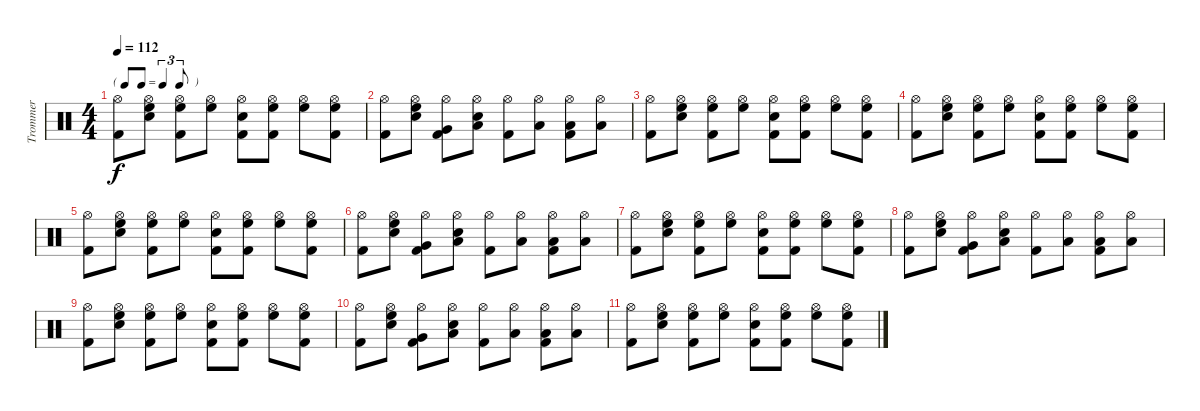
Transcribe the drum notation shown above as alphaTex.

\track ("Trommer" "Trommer") {instrument percussion}
\staff {score}
\articulation defaults
\ts (4 4)
\tf triplet8th
\tempo 112
\clef neutral
\ks c
("Hi-Hat (open)" "Kick (hit) 2").8{dy f} ("Hi-Hat (open)" "Snare (hit) 2" "High Floor Tom (hit)").8 ("Hi-Hat (open)" "High Floor Tom (hit)" "Kick (hit) 2").8 ("Hi-Hat (open)" "High Floor Tom (hit)").8 ("Hi-Hat (open)" "Snare (hit) 2" "Kick (hit) 2").8 ("Hi-Hat (open)" "High Floor Tom (hit)" "Kick (hit) 2").8 ("Hi-Hat (open)" "High Floor Tom (hit)").8 ("Hi-Hat (open)" "High Floor Tom (hit)" "Kick (hit) 2").8 |
("Hi-Hat (open)" "Kick (hit) 2").8 ("Hi-Hat (open)" "High Floor Tom (hit)" "Snare (hit) 2").8 ("Hi-Hat (open)" "Very Low Tom (hit)" "Kick (hit) 2").8 ("Hi-Hat (open)" "Snare (hit) 2" "Low Tom (hit)").8 ("Hi-Hat (open)" "Kick (hit) 2").8 ("Hi-Hat (open)" "Low Floor Tom (hit)").8 ("Hi-Hat (open)" "Low Floor Tom (hit)" "Kick (hit) 2").8 ("Hi-Hat (open)" "Low Floor Tom (hit)").8 |
("Hi-Hat (open)" "Kick (hit) 2").8 ("Hi-Hat (open)" "Snare (hit) 2" "High Floor Tom (hit)").8 ("Hi-Hat (open)" "High Floor Tom (hit)" "Kick (hit) 2").8 ("Hi-Hat (open)" "High Floor Tom (hit)").8 ("Hi-Hat (open)" "Snare (hit) 2" "Kick (hit) 2").8 ("Hi-Hat (open)" "High Floor Tom (hit)" "Kick (hit) 2").8 ("Hi-Hat (open)" "High Floor Tom (hit)").8 ("Hi-Hat (open)" "High Floor Tom (hit)" "Kick (hit) 2").8 |
("Hi-Hat (open)" "Kick (hit) 2").8 ("Hi-Hat (open)" "Snare (hit) 2" "High Floor Tom (hit)").8 ("Hi-Hat (open)" "High Floor Tom (hit)" "Kick (hit) 2").8 ("Hi-Hat (open)" "High Floor Tom (hit)").8 ("Hi-Hat (open)" "Snare (hit) 2" "Kick (hit) 2").8 ("Hi-Hat (open)" "High Floor Tom (hit)" "Kick (hit) 2").8 ("Hi-Hat (open)" "High Floor Tom (hit)").8 ("Hi-Hat (open)" "High Floor Tom (hit)" "Kick (hit) 2").8 |
("Hi-Hat (open)" "Kick (hit) 2").8 ("Hi-Hat (open)" "Snare (hit) 2" "High Floor Tom (hit)").8 ("Hi-Hat (open)" "High Floor Tom (hit)" "Kick (hit) 2").8 ("Hi-Hat (open)" "High Floor Tom (hit)").8 ("Hi-Hat (open)" "Snare (hit) 2" "Kick (hit) 2").8 ("Hi-Hat (open)" "High Floor Tom (hit)" "Kick (hit) 2").8 ("Hi-Hat (open)" "High Floor Tom (hit)").8 ("Hi-Hat (open)" "High Floor Tom (hit)" "Kick (hit) 2").8 |
("Hi-Hat (open)" "Kick (hit) 2").8 ("Hi-Hat (open)" "High Floor Tom (hit)" "Snare (hit) 2").8 ("Hi-Hat (open)" "Very Low Tom (hit)" "Kick (hit) 2").8 ("Hi-Hat (open)" "Snare (hit) 2" "Low Tom (hit)").8 ("Hi-Hat (open)" "Kick (hit) 2").8 ("Hi-Hat (open)" "Low Floor Tom (hit)").8 ("Hi-Hat (open)" "Low Floor Tom (hit)" "Kick (hit) 2").8 ("Hi-Hat (open)" "Low Floor Tom (hit)").8 |
("Hi-Hat (open)" "Kick (hit) 2").8 ("Hi-Hat (open)" "Snare (hit) 2" "High Floor Tom (hit)").8 ("Hi-Hat (open)" "High Floor Tom (hit)" "Kick (hit) 2").8 ("Hi-Hat (open)" "High Floor Tom (hit)").8 ("Hi-Hat (open)" "Snare (hit) 2" "Kick (hit) 2").8 ("Hi-Hat (open)" "High Floor Tom (hit)" "Kick (hit) 2").8 ("Hi-Hat (open)" "High Floor Tom (hit)").8 ("Hi-Hat (open)" "High Floor Tom (hit)" "Kick (hit) 2").8 |
("Hi-Hat (open)" "Kick (hit) 2").8 ("Hi-Hat (open)" "High Floor Tom (hit)" "Snare (hit) 2").8 ("Hi-Hat (open)" "Very Low Tom (hit)" "Kick (hit) 2").8 ("Hi-Hat (open)" "Snare (hit) 2" "Low Tom (hit)").8 ("Hi-Hat (open)" "Kick (hit) 2").8 ("Hi-Hat (open)" "Low Floor Tom (hit)").8 ("Hi-Hat (open)" "Low Floor Tom (hit)" "Kick (hit) 2").8 ("Hi-Hat (open)" "Low Floor Tom (hit)").8 |
("Hi-Hat (open)" "Kick (hit) 2").8 ("Hi-Hat (open)" "Snare (hit) 2" "High Floor Tom (hit)").8 ("Hi-Hat (open)" "High Floor Tom (hit)" "Kick (hit) 2").8 ("Hi-Hat (open)" "High Floor Tom (hit)").8 ("Hi-Hat (open)" "Snare (hit) 2" "Kick (hit) 2").8 ("Hi-Hat (open)" "High Floor Tom (hit)" "Kick (hit) 2").8 ("Hi-Hat (open)" "High Floor Tom (hit)").8 ("Hi-Hat (open)" "High Floor Tom (hit)" "Kick (hit) 2").8 |
("Hi-Hat (open)" "Kick (hit) 2").8 ("Hi-Hat (open)" "High Floor Tom (hit)" "Snare (hit) 2").8 ("Hi-Hat (open)" "Very Low Tom (hit)" "Kick (hit) 2").8 ("Hi-Hat (open)" "Snare (hit) 2" "Low Tom (hit)").8 ("Hi-Hat (open)" "Kick (hit) 2").8 ("Hi-Hat (open)" "Low Floor Tom (hit)").8 ("Hi-Hat (open)" "Low Floor Tom (hit)" "Kick (hit) 2").8 ("Hi-Hat (open)" "Low Floor Tom (hit)").8 |
("Hi-Hat (open)" "Kick (hit) 2").8 ("Hi-Hat (open)" "Snare (hit) 2" "High Floor Tom (hit)").8 ("Hi-Hat (open)" "High Floor Tom (hit)" "Kick (hit) 2").8 ("Hi-Hat (open)" "High Floor Tom (hit)").8 ("Hi-Hat (open)" "Snare (hit) 2" "Kick (hit) 2").8 ("Hi-Hat (open)" "High Floor Tom (hit)" "Kick (hit) 2").8 ("Hi-Hat (open)" "High Floor Tom (hit)").8 ("Hi-Hat (open)" "High Floor Tom (hit)" "Kick (hit) 2").8
